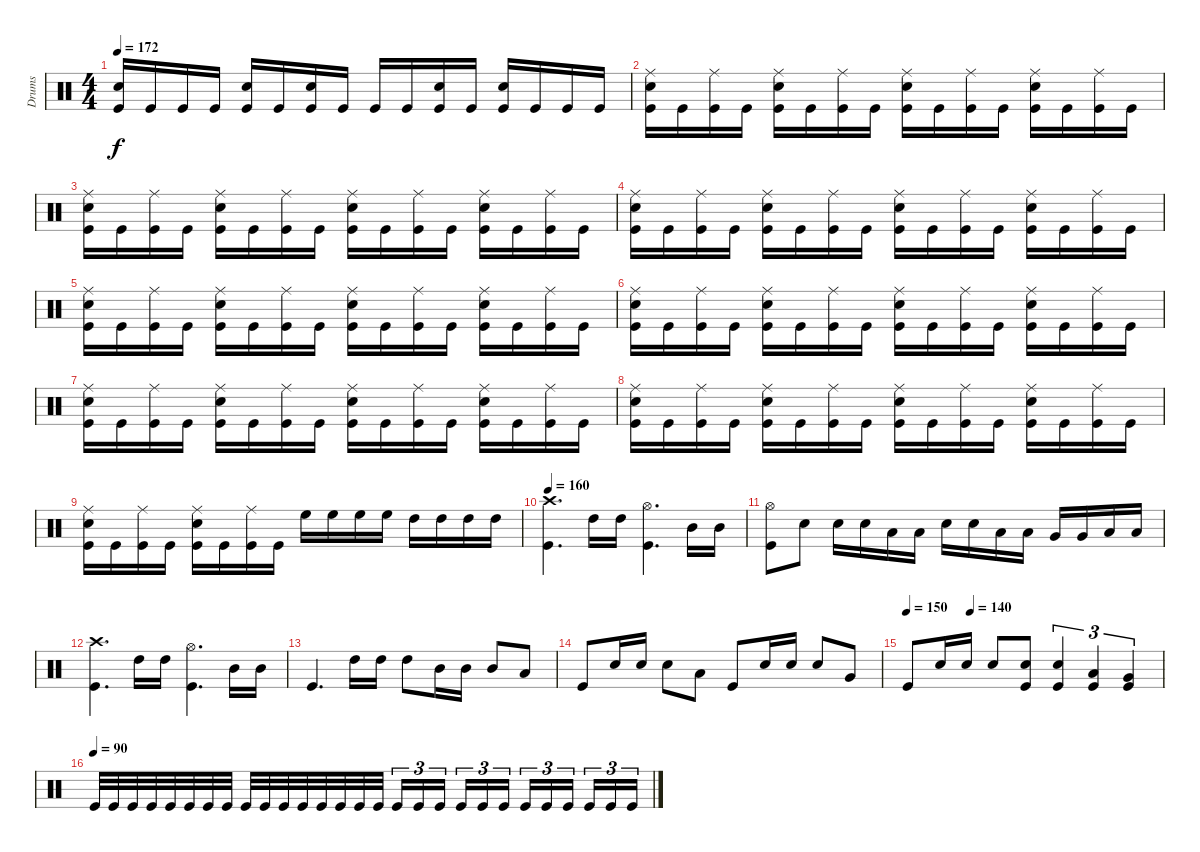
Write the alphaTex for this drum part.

\track ("Drums" "Drums") {instrument percussion}
\staff {score}
\articulation defaults
\ts (4 4)
\tempo 172
\clef neutral
\ks c
("Kick (hit)" "Snare (hit) 2").16{dy f} "Kick (hit)".16 "Kick (hit)".16 "Kick (hit)".16 ("Kick (hit)" "Snare (hit) 2").16 "Kick (hit)".16 ("Kick (hit)" "Snare (hit) 2").16 "Kick (hit)".16 "Kick (hit)".16 "Kick (hit)".16 ("Snare (hit) 2" "Kick (hit)").16 "Kick (hit)".16 ("Kick (hit)" "Snare (hit) 2").16 "Kick (hit)".16 "Kick (hit)".16 "Kick (hit)".16 |
("Kick (hit)" "Snare (hit) 2" "Ride (middle)").16 "Kick (hit)".16 ("Kick (hit)" "Ride (middle)").16 "Kick (hit)".16 ("Kick (hit)" "Snare (hit) 2" "Ride (middle)").16 "Kick (hit)".16 ("Kick (hit)" "Ride (middle)").16 "Kick (hit)".16 ("Kick (hit)" "Snare (hit) 2" "Ride (middle)").16 "Kick (hit)".16 ("Kick (hit)" "Ride (middle)").16 "Kick (hit)".16 ("Kick (hit)" "Snare (hit) 2" "Ride (middle)").16 "Kick (hit)".16 ("Kick (hit)" "Ride (middle)").16 "Kick (hit)".16 |
("Kick (hit)" "Snare (hit) 2" "Ride (middle)").16 "Kick (hit)".16 ("Kick (hit)" "Ride (middle)").16 "Kick (hit)".16 ("Kick (hit)" "Snare (hit) 2" "Ride (middle)").16 "Kick (hit)".16 ("Kick (hit)" "Ride (middle)").16 "Kick (hit)".16 ("Kick (hit)" "Snare (hit) 2" "Ride (middle)").16 "Kick (hit)".16 ("Kick (hit)" "Ride (middle)").16 "Kick (hit)".16 ("Kick (hit)" "Snare (hit) 2" "Ride (middle)").16 "Kick (hit)".16 ("Kick (hit)" "Ride (middle)").16 "Kick (hit)".16 |
("Kick (hit)" "Snare (hit) 2" "Ride (middle)").16 "Kick (hit)".16 ("Kick (hit)" "Ride (middle)").16 "Kick (hit)".16 ("Kick (hit)" "Snare (hit) 2" "Ride (middle)").16 "Kick (hit)".16 ("Kick (hit)" "Ride (middle)").16 "Kick (hit)".16 ("Kick (hit)" "Snare (hit) 2" "Ride (middle)").16 "Kick (hit)".16 ("Kick (hit)" "Ride (middle)").16 "Kick (hit)".16 ("Kick (hit)" "Snare (hit) 2" "Ride (middle)").16 "Kick (hit)".16 ("Kick (hit)" "Ride (middle)").16 "Kick (hit)".16 |
("Kick (hit)" "Snare (hit) 2" "Ride (middle)").16 "Kick (hit)".16 ("Kick (hit)" "Ride (middle)").16 "Kick (hit)".16 ("Kick (hit)" "Snare (hit) 2" "Ride (middle)").16 "Kick (hit)".16 ("Kick (hit)" "Ride (middle)").16 "Kick (hit)".16 ("Kick (hit)" "Snare (hit) 2" "Ride (middle)").16 "Kick (hit)".16 ("Kick (hit)" "Ride (middle)").16 "Kick (hit)".16 ("Kick (hit)" "Snare (hit) 2" "Ride (middle)").16 "Kick (hit)".16 ("Kick (hit)" "Ride (middle)").16 "Kick (hit)".16 |
("Kick (hit)" "Snare (hit) 2" "Ride (middle)").16 "Kick (hit)".16 ("Kick (hit)" "Ride (middle)").16 "Kick (hit)".16 ("Kick (hit)" "Snare (hit) 2" "Ride (middle)").16 "Kick (hit)".16 ("Kick (hit)" "Ride (middle)").16 "Kick (hit)".16 ("Kick (hit)" "Snare (hit) 2" "Ride (middle)").16 "Kick (hit)".16 ("Kick (hit)" "Ride (middle)").16 "Kick (hit)".16 ("Kick (hit)" "Snare (hit) 2" "Ride (middle)").16 "Kick (hit)".16 ("Kick (hit)" "Ride (middle)").16 "Kick (hit)".16 |
("Kick (hit)" "Snare (hit) 2" "Ride (middle)").16 "Kick (hit)".16 ("Kick (hit)" "Ride (middle)").16 "Kick (hit)".16 ("Kick (hit)" "Snare (hit) 2" "Ride (middle)").16 "Kick (hit)".16 ("Kick (hit)" "Ride (middle)").16 "Kick (hit)".16 ("Kick (hit)" "Snare (hit) 2" "Ride (middle)").16 "Kick (hit)".16 ("Kick (hit)" "Ride (middle)").16 "Kick (hit)".16 ("Kick (hit)" "Snare (hit) 2" "Ride (middle)").16 "Kick (hit)".16 ("Kick (hit)" "Ride (middle)").16 "Kick (hit)".16 |
("Kick (hit)" "Snare (hit) 2" "Ride (middle)").16 "Kick (hit)".16 ("Kick (hit)" "Ride (middle)").16 "Kick (hit)".16 ("Kick (hit)" "Snare (hit) 2" "Ride (middle)").16 "Kick (hit)".16 ("Kick (hit)" "Ride (middle)").16 "Kick (hit)".16 ("Kick (hit)" "Snare (hit) 2" "Ride (middle)").16 "Kick (hit)".16 ("Kick (hit)" "Ride (middle)").16 "Kick (hit)".16 ("Kick (hit)" "Snare (hit) 2" "Ride (middle)").16 "Kick (hit)".16 ("Kick (hit)" "Ride (middle)").16 "Kick (hit)".16 |
("Kick (hit)" "Snare (hit) 2" "Ride (middle)").16 "Kick (hit)".16 ("Kick (hit)" "Ride (middle)").16 "Kick (hit)".16 ("Kick (hit)" "Snare (hit) 2" "Ride (middle)").16 "Kick (hit)".16 ("Kick (hit)" "Ride (middle)").16 "Kick (hit)".16 "High Floor Tom (hit)".16 "High Floor Tom (hit)".16 "High Floor Tom (hit)".16 "High Floor Tom (hit)".16 "High Tom (hit)".16 "High Tom (hit)".16 "High Tom (hit)".16 "High Tom (hit)".16 |
\tempo 160
("Kick (hit)" "Crash high (hit)").4{d} "High Tom (hit)".16 "High Tom (hit)".16 ("Kick (hit)" "Hi-Hat (open)").4{d} "Mid Tom (hit)".16 "Mid Tom (hit)".16 |
("Kick (hit)" "Hi-Hat (open)").8 "Snare (hit) 2".8 "Snare (hit) 2".16 "Snare (hit) 2".16 "Low Tom (hit)".16 "Low Tom (hit)".16 "Snare (hit) 2".16 "Snare (hit) 2".16 "Low Tom (hit)".16 "Low Tom (hit)".16 "Very Low Tom (hit)".16 "Very Low Tom (hit)".16 "Low Floor Tom (hit)".16 "Low Floor Tom (hit)".16 |
("Kick (hit)" "Crash high (hit)").4{d} "High Tom (hit)".16 "High Tom (hit)".16 ("Kick (hit)" "Hi-Hat (open)").4{d} "Mid Tom (hit)".16 "Mid Tom (hit)".16 |
"Kick (hit)".4{d} "High Tom (hit)".16 "High Tom (hit)".16 "High Tom (hit)".8 "Mid Tom (hit)".16 "Mid Tom (hit)".16 "Mid Tom (hit)".8 "Low Tom (hit)".8 |
"Kick (hit)".8 "Snare (hit) 2".16 "Snare (hit) 2".16 "Snare (hit) 2".8 "Low Tom (hit)".8 "Kick (hit)".8 "Snare (hit) 2".16 "Snare (hit) 2".16 "Snare (hit) 2".8 "Very Low Tom (hit)".8 |
\tempo 115
\tempo 150
\tempo (140 0.25)
"Kick (hit)".8 "Snare (hit) 2".16 "Snare (hit) 2".16 "Snare (hit) 2".8 ("Kick (hit)" "Snare (hit) 2").8 ("Kick (hit)" "Snare (hit) 2").4{tu (3 2)} ("Kick (hit)" "Low Tom (hit)").4{tu (3 2)} ("Kick (hit)" "Very Low Tom (hit)").4{tu (3 2)} |
\tempo (90)
"Kick (hit)".32 "Kick (hit)".32 "Kick (hit)".32 "Kick (hit)".32 "Kick (hit)".32 "Kick (hit)".32 "Kick (hit)".32 "Kick (hit)".32 "Kick (hit)".32 "Kick (hit)".32 "Kick (hit)".32 "Kick (hit)".32 "Kick (hit)".32 "Kick (hit)".32 "Kick (hit)".32 "Kick (hit)".32 "Kick (hit)".16{tu (3 2)} "Kick (hit)".16{tu (3 2)} "Kick (hit)".16{tu (3 2) beam splitsecondary} "Kick (hit)".16{tu (3 2)} "Kick (hit)".16{tu (3 2)} "Kick (hit)".16{tu (3 2)} "Kick (hit)".16{tu (3 2)} "Kick (hit)".16{tu (3 2)} "Kick (hit)".16{tu (3 2) beam splitsecondary} "Kick (hit)".16{tu (3 2)} "Kick (hit)".16{tu (3 2)} "Kick (hit)".16{tu (3 2)}
